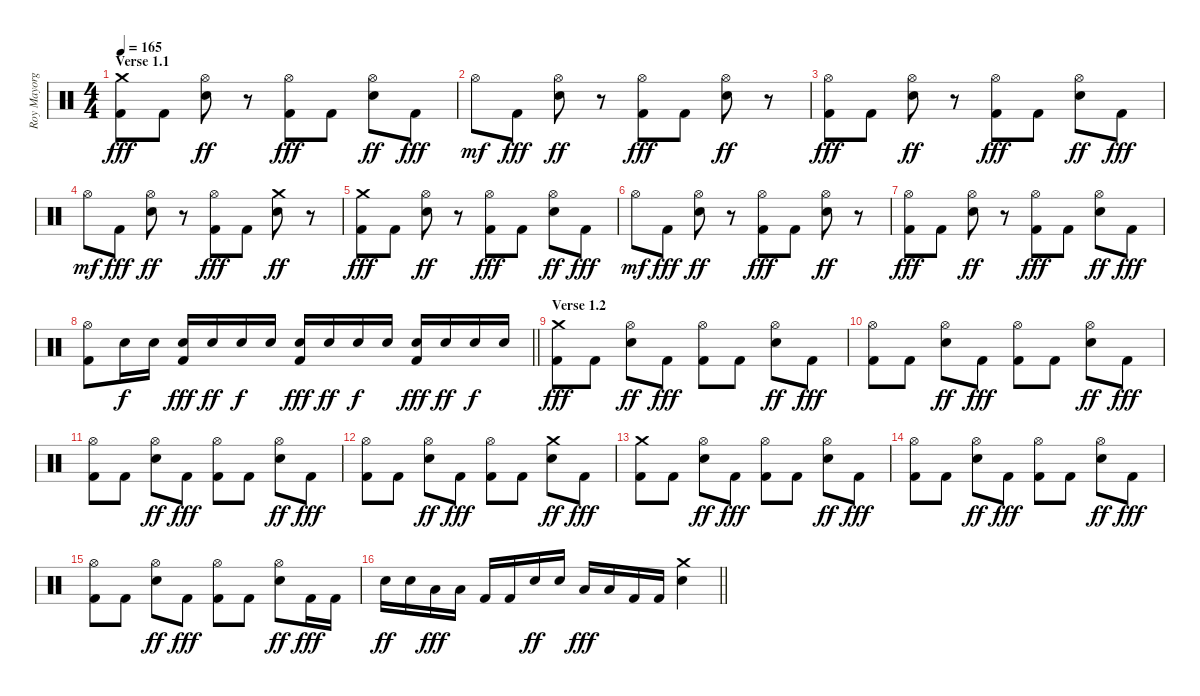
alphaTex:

\track ("Roy Mayorga" "Roy Mayorg") {instrument percussion}
\staff {score}
\articulation defaults
\ts (4 4)
\section ("" "Verse 1.1")
\tempo 165
\clef neutral
\ks c
("Crash medium (hit)" "Kick (hit) 2").8{dy fff} "Kick (hit) 2".8 ("Hi-Hat (open)" "Electric Snare (hit)").8{dy ff} r.8 ("Hi-Hat (open)" "Kick (hit) 2").8{dy fff} "Kick (hit) 2".8 ("Hi-Hat (open)" "Electric Snare (hit)").8{dy ff} "Kick (hit) 2".8{dy fff} |
"Hi-Hat (open)".8{dy mf} "Kick (hit) 2".8{dy fff} ("Hi-Hat (open)" "Electric Snare (hit)").8{dy ff} r.8 ("Hi-Hat (open)" "Kick (hit) 2").8{dy fff} "Kick (hit) 2".8 ("Hi-Hat (open)" "Electric Snare (hit)").8{dy ff} r.8 |
("Hi-Hat (open)" "Kick (hit) 2").8{dy fff} "Kick (hit) 2".8 ("Hi-Hat (open)" "Electric Snare (hit)").8{dy ff} r.8 ("Hi-Hat (open)" "Kick (hit) 2").8{dy fff} "Kick (hit) 2".8 ("Hi-Hat (open)" "Electric Snare (hit)").8{dy ff} "Kick (hit) 2".8{dy fff} |
"Hi-Hat (open)".8{dy mf} "Kick (hit) 2".8{dy fff} ("Hi-Hat (open)" "Electric Snare (hit)").8{dy ff} r.8 ("Hi-Hat (open)" "Kick (hit) 2").8{dy fff} "Kick (hit) 2".8 ("Crash medium (hit)" "Electric Snare (hit)").8{dy ff} r.8 |
("Crash medium (hit)" "Kick (hit) 2").8{dy fff} "Kick (hit) 2".8 ("Hi-Hat (open)" "Electric Snare (hit)").8{dy ff} r.8 ("Hi-Hat (open)" "Kick (hit) 2").8{dy fff} "Kick (hit) 2".8 ("Hi-Hat (open)" "Electric Snare (hit)").8{dy ff} "Kick (hit) 2".8{dy fff} |
"Hi-Hat (open)".8{dy mf} "Kick (hit) 2".8{dy fff} ("Hi-Hat (open)" "Electric Snare (hit)").8{dy ff} r.8 ("Hi-Hat (open)" "Kick (hit) 2").8{dy fff} "Kick (hit) 2".8 ("Hi-Hat (open)" "Electric Snare (hit)").8{dy ff} r.8 |
("Hi-Hat (open)" "Kick (hit) 2").8{dy fff} "Kick (hit) 2".8 ("Hi-Hat (open)" "Electric Snare (hit)").8{dy ff} r.8 ("Hi-Hat (open)" "Kick (hit) 2").8{dy fff} "Kick (hit) 2".8 ("Hi-Hat (open)" "Electric Snare (hit)").8{dy ff} "Kick (hit) 2".8{dy fff} |
\barLineRight lightlight
("Hi-Hat (open)" "Kick (hit) 2").8 "Electric Snare (hit)".16{dy f} "Electric Snare (hit)".16 ("Electric Snare (hit)" "Kick (hit) 2").16{dy fff} "Electric Snare (hit)".16{dy ff} "Electric Snare (hit)".16{dy f} "Electric Snare (hit)".16 ("Electric Snare (hit)" "Kick (hit) 2").16{dy fff} "Electric Snare (hit)".16{dy ff} "Electric Snare (hit)".16{dy f} "Electric Snare (hit)".16 ("Electric Snare (hit)" "Kick (hit) 2").16{dy fff} "Electric Snare (hit)".16{dy ff} "Electric Snare (hit)".16{dy f} "Electric Snare (hit)".16 |
\section ("" "Verse 1.2")
("Crash medium (hit)" "Kick (hit) 2").8{dy fff} "Kick (hit) 2".8 ("Hi-Hat (open)" "Electric Snare (hit)").8{dy ff} "Kick (hit) 2".8{dy fff} ("Hi-Hat (open)" "Kick (hit) 2").8 "Kick (hit) 2".8 ("Hi-Hat (open)" "Electric Snare (hit)").8{dy ff} "Kick (hit) 2".8{dy fff} |
("Hi-Hat (open)" "Kick (hit) 2").8 "Kick (hit) 2".8 ("Hi-Hat (open)" "Electric Snare (hit)").8{dy ff} "Kick (hit) 2".8{dy fff} ("Hi-Hat (open)" "Kick (hit) 2").8 "Kick (hit) 2".8 ("Hi-Hat (open)" "Electric Snare (hit)").8{dy ff} "Kick (hit) 2".8{dy fff} |
("Hi-Hat (open)" "Kick (hit) 2").8 "Kick (hit) 2".8 ("Hi-Hat (open)" "Electric Snare (hit)").8{dy ff} "Kick (hit) 2".8{dy fff} ("Hi-Hat (open)" "Kick (hit) 2").8 "Kick (hit) 2".8 ("Hi-Hat (open)" "Electric Snare (hit)").8{dy ff} "Kick (hit) 2".8{dy fff} |
("Hi-Hat (open)" "Kick (hit) 2").8 "Kick (hit) 2".8 ("Hi-Hat (open)" "Electric Snare (hit)").8{dy ff} "Kick (hit) 2".8{dy fff} ("Hi-Hat (open)" "Kick (hit) 2").8 "Kick (hit) 2".8 ("Crash medium (hit)" "Electric Snare (hit)").8{dy ff} "Kick (hit) 2".8{dy fff} |
("Crash medium (hit)" "Kick (hit) 2").8 "Kick (hit) 2".8 ("Hi-Hat (open)" "Electric Snare (hit)").8{dy ff} "Kick (hit) 2".8{dy fff} ("Hi-Hat (open)" "Kick (hit) 2").8 "Kick (hit) 2".8 ("Hi-Hat (open)" "Electric Snare (hit)").8{dy ff} "Kick (hit) 2".8{dy fff} |
("Hi-Hat (open)" "Kick (hit) 2").8 "Kick (hit) 2".8 ("Hi-Hat (open)" "Electric Snare (hit)").8{dy ff} "Kick (hit) 2".8{dy fff} ("Hi-Hat (open)" "Kick (hit) 2").8 "Kick (hit) 2".8 ("Hi-Hat (open)" "Electric Snare (hit)").8{dy ff} "Kick (hit) 2".8{dy fff} |
("Hi-Hat (open)" "Kick (hit) 2").8 "Kick (hit) 2".8 ("Hi-Hat (open)" "Electric Snare (hit)").8{dy ff} "Kick (hit) 2".8{dy fff} ("Hi-Hat (open)" "Kick (hit) 2").8 "Kick (hit) 2".8 ("Hi-Hat (open)" "Electric Snare (hit)").8{dy ff} "Kick (hit) 2".16{dy fff} "Kick (hit) 2".16 |
\barLineRight lightlight "Electric Snare (hit)".16{dy ff} "Electric Snare (hit)".16 "Low Tom (hit)".16{dy fff} "Low Tom (hit)".16 "Kick (hit) 2".16 "Kick (hit) 2".16 "Electric Snare (hit)".16{dy ff} "Electric Snare (hit)".16 "Low Tom (hit)".16{dy fff} "Low Tom (hit)".16 "Kick (hit) 2".16 "Kick (hit) 2".16
("Crash medium (hit)" "Electric Snare (hit)").4
